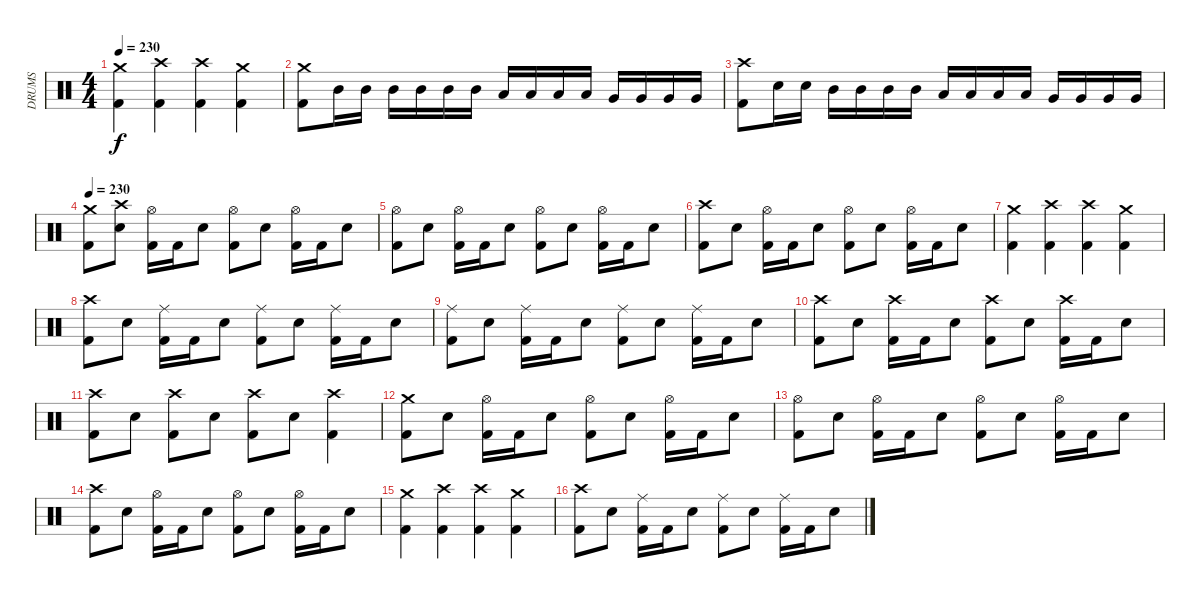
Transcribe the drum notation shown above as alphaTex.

\track ("DRUMS" "DRUMS") {instrument percussion}
\staff {score}
\articulation defaults
\ts (4 4)
\tempo 230
\tempo 215
\tempo 230
\clef neutral
\ks c
("Kick (hit) 2" "Crash medium (hit)").4{dy f} ("Kick (hit) 2" "Crash high (hit)").4 ("Kick (hit) 2" "Crash high (hit)").4 ("Kick (hit) 2" "Crash medium (hit)").4 |
("Kick (hit) 2" "Crash medium (hit)").8 "Mid Tom (hit)".16 "Mid Tom (hit)".16 "Mid Tom (hit)".16 "Mid Tom (hit)".16 "Mid Tom (hit)".16 "Mid Tom (hit)".16 "Low Tom (hit)".16 "Low Tom (hit)".16 "Low Tom (hit)".16 "Low Tom (hit)".16 "Very Low Tom (hit)".16 "Very Low Tom (hit)".16 "Very Low Tom (hit)".16 "Very Low Tom (hit)".16 |
("Kick (hit) 2" "Crash high (hit)").8 "Snare (hit) 2".16 "Snare (hit) 2".16 "Mid Tom (hit)".16 "Mid Tom (hit)".16 "Mid Tom (hit)".16 "Mid Tom (hit)".16 "Low Tom (hit)".16 "Low Tom (hit)".16 "Low Tom (hit)".16 "Low Tom (hit)".16 "Very Low Tom (hit)".16 "Very Low Tom (hit)".16 "Very Low Tom (hit)".16 "Very Low Tom (hit)".16 |
\tempo 230
("Kick (hit) 2" "Crash medium (hit)").8 ("Snare (hit) 2" "Crash high (hit)").8 ("Kick (hit) 2" "Hi-Hat (open)").16 "Kick (hit) 2".16 "Snare (hit) 2".8 ("Kick (hit) 2" "Hi-Hat (open)").8 "Snare (hit) 2".8 ("Kick (hit) 2" "Hi-Hat (open)").16 "Kick (hit) 2".16 "Snare (hit) 2".8 |
("Kick (hit) 2" "Hi-Hat (open)").8 "Snare (hit) 2".8 ("Kick (hit) 2" "Hi-Hat (open)").16 "Kick (hit) 2".16 "Snare (hit) 2".8 ("Kick (hit) 2" "Hi-Hat (open)").8 "Snare (hit) 2".8 ("Kick (hit) 2" "Hi-Hat (open)").16 "Kick (hit) 2".16 "Snare (hit) 2".8 |
("Kick (hit) 2" "Crash high (hit)").8 "Snare (hit) 2".8 ("Kick (hit) 2" "Hi-Hat (open)").16 "Kick (hit) 2".16 "Snare (hit) 2".8 ("Kick (hit) 2" "Hi-Hat (open)").8 "Snare (hit) 2".8 ("Kick (hit) 2" "Hi-Hat (open)").16 "Kick (hit) 2".16 "Snare (hit) 2".8 |
("Kick (hit) 2" "Crash medium (hit)").4 ("Kick (hit) 2" "Crash high (hit)").4 ("Kick (hit) 2" "Crash high (hit)").4 ("Kick (hit) 2" "Crash medium (hit)").4 |
("Kick (hit) 2" "Crash high (hit)").8 "Snare (hit) 2".8 ("Kick (hit) 2" "Ride (middle)").16 "Kick (hit) 2".16 "Snare (hit) 2".8 ("Kick (hit) 2" "Ride (middle)").8 "Snare (hit) 2".8 ("Kick (hit) 2" "Ride (middle)").16 "Kick (hit) 2".16 "Snare (hit) 2".8 |
("Kick (hit) 2" "Ride (middle)").8 "Snare (hit) 2".8 ("Kick (hit) 2" "Ride (middle)").16 "Kick (hit) 2".16 "Snare (hit) 2".8 ("Kick (hit) 2" "Ride (middle)").8 "Snare (hit) 2".8 ("Kick (hit) 2" "Ride (middle)").16 "Kick (hit) 2".16 "Snare (hit) 2".8 |
("Kick (hit) 2" "Crash high (hit)").8 "Snare (hit) 2".8 ("Kick (hit) 2" "Crash high (hit)").16 "Kick (hit) 2".16 "Snare (hit) 2".8 ("Kick (hit) 2" "Crash high (hit)").8 "Snare (hit) 2".8 ("Kick (hit) 2" "Crash high (hit)").16 "Kick (hit) 2".16 "Snare (hit) 2".8 |
("Kick (hit) 2" "Crash high (hit)").8 "Snare (hit) 2".8 ("Kick (hit) 2" "Crash high (hit)").8 "Snare (hit) 2".8 ("Kick (hit) 2" "Crash high (hit)").8 "Snare (hit) 2".8 ("Kick (hit) 2" "Crash high (hit)").4 |
("Kick (hit) 2" "Crash medium (hit)").8 "Snare (hit) 2".8 ("Kick (hit) 2" "Hi-Hat (open)").16 "Kick (hit) 2".16 "Snare (hit) 2".8 ("Kick (hit) 2" "Hi-Hat (open)").8 "Snare (hit) 2".8 ("Kick (hit) 2" "Hi-Hat (open)").16 "Kick (hit) 2".16 "Snare (hit) 2".8 |
("Kick (hit) 2" "Hi-Hat (open)").8 "Snare (hit) 2".8 ("Kick (hit) 2" "Hi-Hat (open)").16 "Kick (hit) 2".16 "Snare (hit) 2".8 ("Kick (hit) 2" "Hi-Hat (open)").8 "Snare (hit) 2".8 ("Kick (hit) 2" "Hi-Hat (open)").16 "Kick (hit) 2".16 "Snare (hit) 2".8 |
("Kick (hit) 2" "Crash high (hit)").8 "Snare (hit) 2".8 ("Kick (hit) 2" "Hi-Hat (open)").16 "Kick (hit) 2".16 "Snare (hit) 2".8 ("Kick (hit) 2" "Hi-Hat (open)").8 "Snare (hit) 2".8 ("Kick (hit) 2" "Hi-Hat (open)").16 "Kick (hit) 2".16 "Snare (hit) 2".8 |
("Kick (hit) 2" "Crash medium (hit)").4 ("Kick (hit) 2" "Crash high (hit)").4 ("Kick (hit) 2" "Crash high (hit)").4 ("Kick (hit) 2" "Crash medium (hit)").4 |
("Kick (hit) 2" "Crash high (hit)").8 "Snare (hit) 2".8 ("Kick (hit) 2" "Ride (middle)").16 "Kick (hit) 2".16 "Snare (hit) 2".8 ("Kick (hit) 2" "Ride (middle)").8 "Snare (hit) 2".8 ("Kick (hit) 2" "Ride (middle)").16 "Kick (hit) 2".16 "Snare (hit) 2".8
